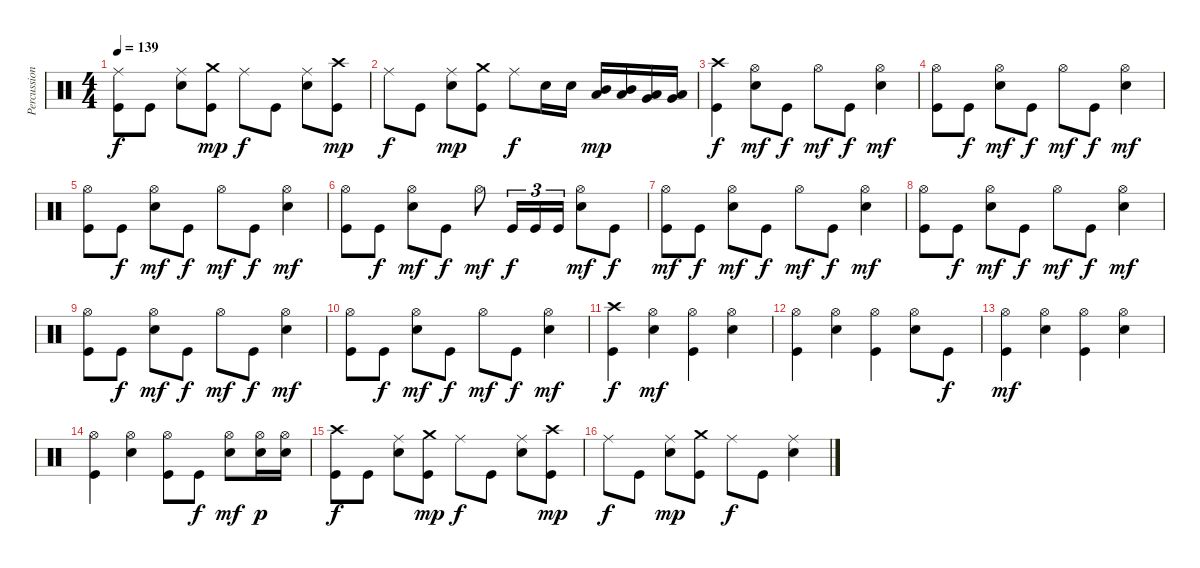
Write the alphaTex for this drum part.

\track ("Percussions" "Percussion") {instrument percussion}
\staff {score}
\articulation defaults
\ts (4 4)
\tempo 139
\clef neutral
\ks c
("Kick (hit)" "Ride (middle)").8{dy f} "Kick (hit)".8 ("Electric Snare (hit)" "Ride (middle)").8 ("Kick (hit)" "Crash medium (hit)").8{dy mp} "Ride (middle)".8{dy f} "Kick (hit)".8 ("Electric Snare (hit)" "Ride (middle)").8 ("Kick (hit)" "Crash high (hit)").8{dy mp} |
"Ride (middle)".8{dy f} "Kick (hit)".8 ("Electric Snare (hit)" "Ride (middle)").8{dy mp} ("Kick (hit)" "Crash medium (hit)").8 "Ride (middle)".8{dy f} "Electric Snare (hit)".16 "Electric Snare (hit)".16 ("Low Tom (hit)" "Mid Tom (hit)").16{dy mp} ("Low Tom (hit)" "Mid Tom (hit)").16 ("Very Low Tom (hit)" "Low Tom (hit)").16 ("Very Low Tom (hit)" "Low Tom (hit)").16 |
("Kick (hit)" "Crash high (hit)").4{dy f} ("Electric Snare (hit)" "Hi-Hat (open)").8{dy mf} "Kick (hit)".8{dy f} "Hi-Hat (open)".8{dy mf} "Kick (hit)".8{dy f} ("Electric Snare (hit)" "Hi-Hat (open)").4{dy mf} |
("Kick (hit)" "Hi-Hat (open)").8 "Kick (hit)".8{dy f} ("Electric Snare (hit)" "Hi-Hat (open)").8{dy mf} "Kick (hit)".8{dy f} "Hi-Hat (open)".8{dy mf} "Kick (hit)".8{dy f} ("Electric Snare (hit)" "Hi-Hat (open)").4{dy mf} |
("Kick (hit)" "Hi-Hat (open)").8 "Kick (hit)".8{dy f} ("Electric Snare (hit)" "Hi-Hat (open)").8{dy mf} "Kick (hit)".8{dy f} "Hi-Hat (open)".8{dy mf} "Kick (hit)".8{dy f} ("Electric Snare (hit)" "Hi-Hat (open)").4{dy mf} |
("Kick (hit)" "Hi-Hat (open)").8 "Kick (hit)".8{dy f} ("Electric Snare (hit)" "Hi-Hat (open)").8{dy mf} "Kick (hit)".8{dy f} "Hi-Hat (open)".8{dy mf} "Kick (hit)".16{tu (3 2) dy f} "Kick (hit)".16{tu (3 2)} "Kick (hit)".16{tu (3 2)} ("Electric Snare (hit)" "Hi-Hat (open)").8{dy mf} "Kick (hit)".8{dy f} |
("Kick (hit)" "Hi-Hat (open)").8{dy mf} "Kick (hit)".8{dy f} ("Electric Snare (hit)" "Hi-Hat (open)").8{dy mf} "Kick (hit)".8{dy f} "Hi-Hat (open)".8{dy mf} "Kick (hit)".8{dy f} ("Electric Snare (hit)" "Hi-Hat (open)").4{dy mf} |
("Kick (hit)" "Hi-Hat (open)").8 "Kick (hit)".8{dy f} ("Electric Snare (hit)" "Hi-Hat (open)").8{dy mf} "Kick (hit)".8{dy f} "Hi-Hat (open)".8{dy mf} "Kick (hit)".8{dy f} ("Electric Snare (hit)" "Hi-Hat (open)").4{dy mf} |
("Kick (hit)" "Hi-Hat (open)").8 "Kick (hit)".8{dy f} ("Electric Snare (hit)" "Hi-Hat (open)").8{dy mf} "Kick (hit)".8{dy f} "Hi-Hat (open)".8{dy mf} "Kick (hit)".8{dy f} ("Electric Snare (hit)" "Hi-Hat (open)").4{dy mf} |
("Kick (hit)" "Hi-Hat (open)").8 "Kick (hit)".8{dy f} ("Electric Snare (hit)" "Hi-Hat (open)").8{dy mf} "Kick (hit)".8{dy f} "Hi-Hat (open)".8{dy mf} "Kick (hit)".8{dy f} ("Electric Snare (hit)" "Hi-Hat (open)").4{dy mf} |
("Kick (hit)" "Crash high (hit)").4{dy f} ("Electric Snare (hit)" "Hi-Hat (open)").4{dy mf} ("Kick (hit)" "Hi-Hat (open)").4 ("Electric Snare (hit)" "Hi-Hat (open)").4 |
("Kick (hit)" "Hi-Hat (open)").4 ("Electric Snare (hit)" "Hi-Hat (open)").4 ("Kick (hit)" "Hi-Hat (open)").4 ("Electric Snare (hit)" "Hi-Hat (open)").8 "Kick (hit)".8{dy f} |
("Kick (hit)" "Hi-Hat (open)").4{dy mf} ("Electric Snare (hit)" "Hi-Hat (open)").4 ("Kick (hit)" "Hi-Hat (open)").4 ("Electric Snare (hit)" "Hi-Hat (open)").4 |
("Kick (hit)" "Hi-Hat (open)").4 ("Electric Snare (hit)" "Hi-Hat (open)").4 ("Kick (hit)" "Hi-Hat (open)").8 "Kick (hit)".8{dy f} ("Electric Snare (hit)" "Hi-Hat (open)").8{dy mf} ("Electric Snare (hit)" "Hi-Hat (open)").16{dy p} ("Electric Snare (hit)" "Hi-Hat (open)").16 |
("Kick (hit)" "Crash high (hit)").8{dy f} "Kick (hit)".8 ("Electric Snare (hit)" "Ride (middle)").8 ("Kick (hit)" "Crash medium (hit)").8{dy mp} "Ride (middle)".8{dy f} "Kick (hit)".8 ("Electric Snare (hit)" "Ride (middle)").8 ("Kick (hit)" "Crash high (hit)").8{dy mp} |
"Ride (middle)".8{dy f} "Kick (hit)".8 ("Electric Snare (hit)" "Ride (middle)").8{dy mp} ("Kick (hit)" "Crash medium (hit)").8 "Ride (middle)".8{dy f} "Kick (hit)".8 ("Electric Snare (hit)" "Ride (middle)").4
